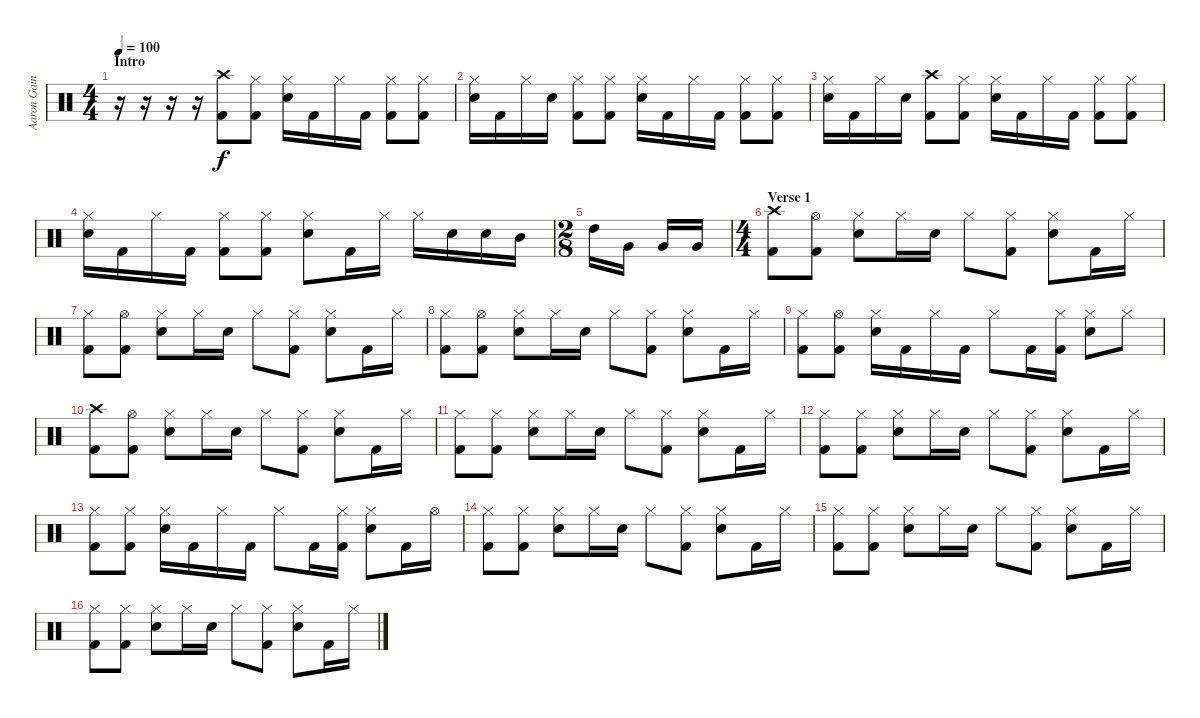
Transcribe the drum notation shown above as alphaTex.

\track ("Aaron Gainer" "Aaron Gain") {instrument percussion}
\staff {score}
\articulation defaults
\ts (4 4)
\section ("" "Intro")
\tempo 100
\clef neutral
\ks c
r.16{dy f} r.16 r.16 r.16 ("Crash high (hit)" "Kick (hit) 2").8 ("Hi-Hat (closed)" "Kick (hit) 2").8 ("Hi-Hat (closed)" "Snare (hit) 2").16 "Kick (hit) 2".16 "Hi-Hat (closed)".16 "Kick (hit) 2".16 ("Hi-Hat (closed)" "Kick (hit) 2").8 ("Hi-Hat (closed)" "Kick (hit) 2").8 |
("Hi-Hat (closed)" "Snare (hit) 2").16 "Kick (hit) 2".16 "Hi-Hat (closed)".16 "Snare (hit) 2".16 ("Hi-Hat (closed)" "Kick (hit) 2").8 ("Hi-Hat (closed)" "Kick (hit) 2").8 ("Hi-Hat (closed)" "Snare (hit) 2").16 "Kick (hit) 2".16 "Hi-Hat (closed)".16 "Kick (hit) 2".16 ("Hi-Hat (closed)" "Kick (hit) 2").8 ("Hi-Hat (closed)" "Kick (hit) 2").8 |
("Hi-Hat (closed)" "Snare (hit) 2").16 "Kick (hit) 2".16 "Hi-Hat (closed)".16 "Snare (hit) 2".16 ("Crash high (hit)" "Kick (hit) 2").8 ("Hi-Hat (closed)" "Kick (hit) 2").8 ("Hi-Hat (closed)" "Snare (hit) 2").16 "Kick (hit) 2".16 "Hi-Hat (closed)".16 "Kick (hit) 2".16 ("Hi-Hat (closed)" "Kick (hit) 2").8 ("Hi-Hat (closed)" "Kick (hit) 2").8 |
("Hi-Hat (closed)" "Snare (hit) 2").16 "Kick (hit) 2".16 "Hi-Hat (closed)".16 "Kick (hit) 2".16 ("Hi-Hat (closed)" "Kick (hit) 2").8 ("Hi-Hat (closed)" "Kick (hit) 2").8 ("Hi-Hat (closed)" "Snare (hit) 2").8 "Kick (hit) 2".16 "Hi-Hat (closed)".16 "Hi-Hat (closed)".16 "Snare (hit) 2".16 "Snare (hit) 2".16 "Mid Tom (hit)".16 |
\ts (2 8)
"High Tom (hit)".16 "Very Low Tom (hit)".16 "Very Low Tom (hit)".16 "Very Low Tom (hit)".16 |
\ts (4 4)
\section ("" "Verse 1")
("Crash high (hit)" "Kick (hit) 2").8 ("Hi-Hat (open)" "Kick (hit) 2").8 ("Hi-Hat (closed)" "Snare (hit) 2").8 "Hi-Hat (closed)".16 "Snare (hit) 2".16 "Hi-Hat (closed)".8 ("Hi-Hat (closed)" "Kick (hit) 2").8 ("Hi-Hat (closed)" "Snare (hit) 2").8 "Kick (hit) 2".16 "Hi-Hat (closed)".16 |
("Hi-Hat (closed)" "Kick (hit) 2").8 ("Hi-Hat (open)" "Kick (hit) 2").8 ("Hi-Hat (closed)" "Snare (hit) 2").8 "Hi-Hat (closed)".16 "Snare (hit) 2".16 "Hi-Hat (closed)".8 ("Hi-Hat (closed)" "Kick (hit) 2").8 ("Hi-Hat (closed)" "Snare (hit) 2").8 "Kick (hit) 2".16 "Hi-Hat (closed)".16 |
("Hi-Hat (closed)" "Kick (hit) 2").8 ("Hi-Hat (open)" "Kick (hit) 2").8 ("Hi-Hat (closed)" "Snare (hit) 2").8 "Hi-Hat (closed)".16 "Snare (hit) 2".16 "Hi-Hat (closed)".8 ("Hi-Hat (closed)" "Kick (hit) 2").8 ("Hi-Hat (closed)" "Snare (hit) 2").8 "Kick (hit) 2".16 "Hi-Hat (closed)".16 |
("Hi-Hat (closed)" "Kick (hit) 2").8 ("Hi-Hat (open)" "Kick (hit) 2").8 ("Hi-Hat (closed)" "Snare (hit) 2").16 "Kick (hit) 2".16 "Hi-Hat (closed)".16 "Kick (hit) 2".16 "Hi-Hat (closed)".8 "Kick (hit) 2".16 ("Hi-Hat (closed)" "Kick (hit) 2").16 ("Hi-Hat (closed)" "Snare (hit) 2").8 "Hi-Hat (closed)".8 |
("Crash high (hit)" "Kick (hit) 2").8 ("Hi-Hat (open)" "Kick (hit) 2").8 ("Hi-Hat (closed)" "Snare (hit) 2").8 "Hi-Hat (closed)".16 "Snare (hit) 2".16 "Hi-Hat (closed)".8 ("Hi-Hat (closed)" "Kick (hit) 2").8 ("Hi-Hat (closed)" "Snare (hit) 2").8 "Kick (hit) 2".16 "Hi-Hat (closed)".16 |
("Hi-Hat (closed)" "Kick (hit) 2").8 ("Hi-Hat (closed)" "Kick (hit) 2").8 ("Hi-Hat (closed)" "Snare (hit) 2").8 "Hi-Hat (closed)".16 "Snare (hit) 2".16 "Hi-Hat (closed)".8 ("Hi-Hat (closed)" "Kick (hit) 2").8 ("Hi-Hat (closed)" "Snare (hit) 2").8 "Kick (hit) 2".16 "Hi-Hat (closed)".16 |
("Hi-Hat (closed)" "Kick (hit) 2").8 ("Hi-Hat (closed)" "Kick (hit) 2").8 ("Hi-Hat (closed)" "Snare (hit) 2").8 "Hi-Hat (closed)".16 "Snare (hit) 2".16 "Hi-Hat (closed)".8 ("Hi-Hat (closed)" "Kick (hit) 2").8 ("Hi-Hat (closed)" "Snare (hit) 2").8 "Kick (hit) 2".16 "Hi-Hat (closed)".16 |
("Hi-Hat (closed)" "Kick (hit) 2").8 ("Hi-Hat (closed)" "Kick (hit) 2").8 ("Hi-Hat (closed)" "Snare (hit) 2").16 "Kick (hit) 2".16 "Hi-Hat (closed)".16 "Kick (hit) 2".16 "Hi-Hat (closed)".8 "Kick (hit) 2".16 ("Hi-Hat (closed)" "Kick (hit) 2").16 ("Hi-Hat (closed)" "Snare (hit) 2").8 "Kick (hit) 2".16 "Hi-Hat (open)".16 |
("Hi-Hat (closed)" "Kick (hit) 2").8 ("Hi-Hat (closed)" "Kick (hit) 2").8 ("Hi-Hat (closed)" "Snare (hit) 2").8 "Hi-Hat (closed)".16 "Snare (hit) 2".16 "Hi-Hat (closed)".8 ("Hi-Hat (closed)" "Kick (hit) 2").8 ("Hi-Hat (closed)" "Snare (hit) 2").8 "Kick (hit) 2".16 "Hi-Hat (closed)".16 |
("Hi-Hat (closed)" "Kick (hit) 2").8 ("Hi-Hat (closed)" "Kick (hit) 2").8 ("Hi-Hat (closed)" "Snare (hit) 2").8 "Hi-Hat (closed)".16 "Snare (hit) 2".16 "Hi-Hat (closed)".8 ("Hi-Hat (closed)" "Kick (hit) 2").8 ("Hi-Hat (closed)" "Snare (hit) 2").8 "Kick (hit) 2".16 "Hi-Hat (closed)".16 |
("Hi-Hat (closed)" "Kick (hit) 2").8 ("Hi-Hat (closed)" "Kick (hit) 2").8 ("Hi-Hat (closed)" "Snare (hit) 2").8 "Hi-Hat (closed)".16 "Snare (hit) 2".16 "Hi-Hat (closed)".8 ("Hi-Hat (closed)" "Kick (hit) 2").8 ("Hi-Hat (closed)" "Snare (hit) 2").8 "Kick (hit) 2".16 "Hi-Hat (closed)".16
